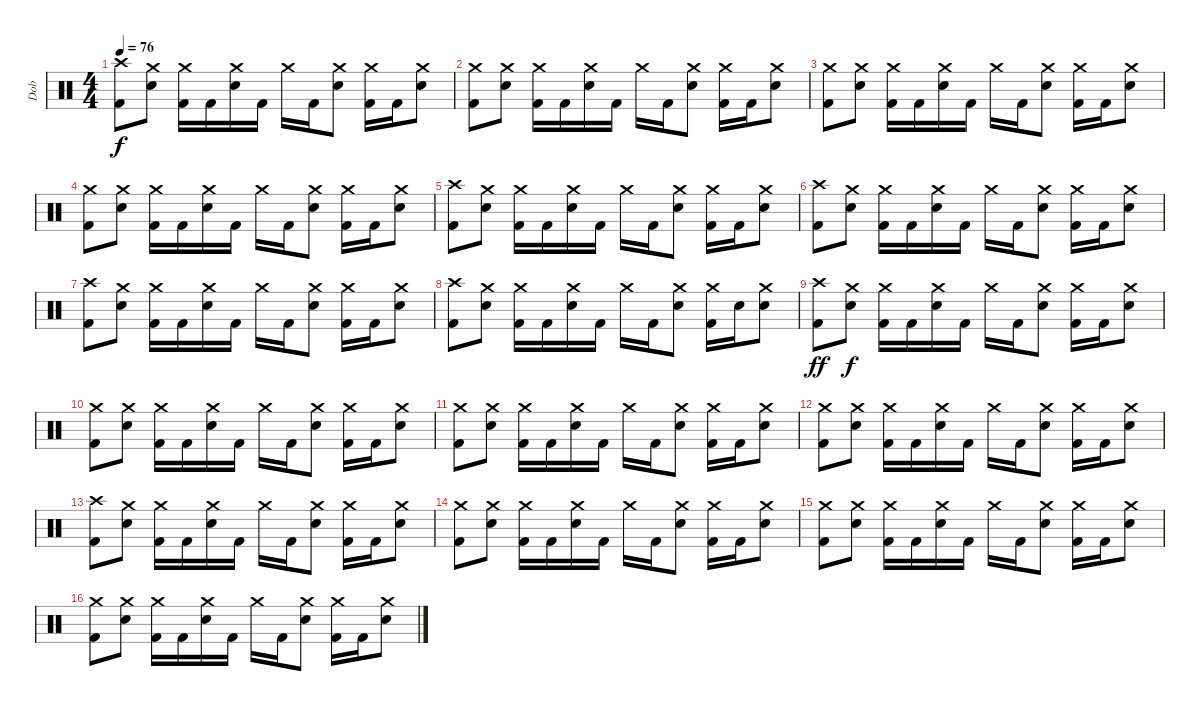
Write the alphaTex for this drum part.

\track ("Dob" "Dob") {instrument percussion}
\staff {score}
\articulation defaults
\ts (4 4)
\tempo 76
\clef neutral
\ks c
("Kick (hit) 2" "Crash high (hit)").8{dy f} ("Electric Snare (hit)" "Crash medium (hit)").8 ("Kick (hit) 2" "Crash medium (hit)").16 "Kick (hit) 2".16 ("Electric Snare (hit)" "Crash medium (hit)").16 "Kick (hit) 2".16 "Crash medium (hit)".16 "Kick (hit) 2".16 ("Electric Snare (hit)" "Crash medium (hit)").8 ("Kick (hit) 2" "Crash medium (hit)").16 "Kick (hit) 2".16 ("Electric Snare (hit)" "Crash medium (hit)").8 |
("Kick (hit) 2" "Crash medium (hit)").8 ("Electric Snare (hit)" "Crash medium (hit)").8 ("Kick (hit) 2" "Crash medium (hit)").16 "Kick (hit) 2".16 ("Electric Snare (hit)" "Crash medium (hit)").16 "Kick (hit) 2".16 "Crash medium (hit)".16 "Kick (hit) 2".16 ("Electric Snare (hit)" "Crash medium (hit)").8 ("Kick (hit) 2" "Crash medium (hit)").16 "Kick (hit) 2".16 ("Electric Snare (hit)" "Crash medium (hit)").8 |
("Kick (hit) 2" "Crash medium (hit)").8 ("Electric Snare (hit)" "Crash medium (hit)").8 ("Kick (hit) 2" "Crash medium (hit)").16 "Kick (hit) 2".16 ("Electric Snare (hit)" "Crash medium (hit)").16 "Kick (hit) 2".16 "Crash medium (hit)".16 "Kick (hit) 2".16 ("Electric Snare (hit)" "Crash medium (hit)").8 ("Kick (hit) 2" "Crash medium (hit)").16 "Kick (hit) 2".16 ("Electric Snare (hit)" "Crash medium (hit)").8 |
("Kick (hit) 2" "Crash medium (hit)").8 ("Electric Snare (hit)" "Crash medium (hit)").8 ("Kick (hit) 2" "Crash medium (hit)").16 "Kick (hit) 2".16 ("Electric Snare (hit)" "Crash medium (hit)").16 "Kick (hit) 2".16 "Crash medium (hit)".16 "Kick (hit) 2".16 ("Electric Snare (hit)" "Crash medium (hit)").8 ("Kick (hit) 2" "Crash medium (hit)").16 "Kick (hit) 2".16 ("Electric Snare (hit)" "Crash medium (hit)").8 |
("Kick (hit) 2" "Crash high (hit)").8 ("Electric Snare (hit)" "Crash medium (hit)").8 ("Kick (hit) 2" "Crash medium (hit)").16 "Kick (hit) 2".16 ("Electric Snare (hit)" "Crash medium (hit)").16 "Kick (hit) 2".16 "Crash medium (hit)".16 "Kick (hit) 2".16 ("Electric Snare (hit)" "Crash medium (hit)").8 ("Kick (hit) 2" "Crash medium (hit)").16 "Kick (hit) 2".16 ("Electric Snare (hit)" "Crash medium (hit)").8 |
("Kick (hit) 2" "Crash high (hit)").8 ("Electric Snare (hit)" "Crash medium (hit)").8 ("Kick (hit) 2" "Crash medium (hit)").16 "Kick (hit) 2".16 ("Electric Snare (hit)" "Crash medium (hit)").16 "Kick (hit) 2".16 "Crash medium (hit)".16 "Kick (hit) 2".16 ("Electric Snare (hit)" "Crash medium (hit)").8 ("Kick (hit) 2" "Crash medium (hit)").16 "Kick (hit) 2".16 ("Electric Snare (hit)" "Crash medium (hit)").8 |
("Kick (hit) 2" "Crash high (hit)").8 ("Electric Snare (hit)" "Crash medium (hit)").8 ("Kick (hit) 2" "Crash medium (hit)").16 "Kick (hit) 2".16 ("Electric Snare (hit)" "Crash medium (hit)").16 "Kick (hit) 2".16 "Crash medium (hit)".16 "Kick (hit) 2".16 ("Electric Snare (hit)" "Crash medium (hit)").8 ("Kick (hit) 2" "Crash medium (hit)").16 "Kick (hit) 2".16 ("Electric Snare (hit)" "Crash medium (hit)").8 |
("Kick (hit) 2" "Crash high (hit)").8 ("Electric Snare (hit)" "Crash medium (hit)").8 ("Kick (hit) 2" "Crash medium (hit)").16 "Kick (hit) 2".16 ("Electric Snare (hit)" "Crash medium (hit)").16 "Kick (hit) 2".16 "Crash medium (hit)".16 "Kick (hit) 2".16 ("Electric Snare (hit)" "Crash medium (hit)").8 ("Kick (hit) 2" "Crash medium (hit)").16 "Electric Snare (hit)".16 ("Electric Snare (hit)"{tr (40 64)} "Crash medium (hit)").8 |
("Kick (hit) 2" "Crash high (hit)").8{dy ff} ("Electric Snare (hit)" "Crash medium (hit)").8{dy f} ("Kick (hit) 2" "Crash medium (hit)").16 "Kick (hit) 2".16 ("Electric Snare (hit)" "Crash medium (hit)").16 "Kick (hit) 2".16 "Crash medium (hit)".16 "Kick (hit) 2".16 ("Electric Snare (hit)" "Crash medium (hit)").8 ("Kick (hit) 2" "Crash medium (hit)").16 "Kick (hit) 2".16 ("Electric Snare (hit)" "Crash medium (hit)").8 |
("Kick (hit) 2" "Crash medium (hit)").8 ("Electric Snare (hit)" "Crash medium (hit)").8 ("Kick (hit) 2" "Crash medium (hit)").16 "Kick (hit) 2".16 ("Electric Snare (hit)" "Crash medium (hit)").16 "Kick (hit) 2".16 "Crash medium (hit)".16 "Kick (hit) 2".16 ("Electric Snare (hit)" "Crash medium (hit)").8 ("Kick (hit) 2" "Crash medium (hit)").16 "Kick (hit) 2".16 ("Electric Snare (hit)" "Crash medium (hit)").8 |
("Kick (hit) 2" "Crash medium (hit)").8 ("Electric Snare (hit)" "Crash medium (hit)").8 ("Kick (hit) 2" "Crash medium (hit)").16 "Kick (hit) 2".16 ("Electric Snare (hit)" "Crash medium (hit)").16 "Kick (hit) 2".16 "Crash medium (hit)".16 "Kick (hit) 2".16 ("Electric Snare (hit)" "Crash medium (hit)").8 ("Kick (hit) 2" "Crash medium (hit)").16 "Kick (hit) 2".16 ("Electric Snare (hit)" "Crash medium (hit)").8 |
("Kick (hit) 2" "Crash medium (hit)").8 ("Electric Snare (hit)" "Crash medium (hit)").8 ("Kick (hit) 2" "Crash medium (hit)").16 "Kick (hit) 2".16 ("Electric Snare (hit)" "Crash medium (hit)").16 "Kick (hit) 2".16 "Crash medium (hit)".16 "Kick (hit) 2".16 ("Electric Snare (hit)" "Crash medium (hit)").8 ("Kick (hit) 2" "Crash medium (hit)").16 "Kick (hit) 2".16 ("Electric Snare (hit)" "Crash medium (hit)").8 |
("Kick (hit) 2" "Crash high (hit)").8 ("Electric Snare (hit)" "Crash medium (hit)").8 ("Kick (hit) 2" "Crash medium (hit)").16 "Kick (hit) 2".16 ("Electric Snare (hit)" "Crash medium (hit)").16 "Kick (hit) 2".16 "Crash medium (hit)".16 "Kick (hit) 2".16 ("Electric Snare (hit)" "Crash medium (hit)").8 ("Kick (hit) 2" "Crash medium (hit)").16 "Kick (hit) 2".16 ("Electric Snare (hit)" "Crash medium (hit)").8 |
("Kick (hit) 2" "Crash medium (hit)").8 ("Electric Snare (hit)" "Crash medium (hit)").8 ("Kick (hit) 2" "Crash medium (hit)").16 "Kick (hit) 2".16 ("Electric Snare (hit)" "Crash medium (hit)").16 "Kick (hit) 2".16 "Crash medium (hit)".16 "Kick (hit) 2".16 ("Electric Snare (hit)" "Crash medium (hit)").8 ("Kick (hit) 2" "Crash medium (hit)").16 "Kick (hit) 2".16 ("Electric Snare (hit)" "Crash medium (hit)").8 |
("Kick (hit) 2" "Crash medium (hit)").8 ("Electric Snare (hit)" "Crash medium (hit)").8 ("Kick (hit) 2" "Crash medium (hit)").16 "Kick (hit) 2".16 ("Electric Snare (hit)" "Crash medium (hit)").16 "Kick (hit) 2".16 "Crash medium (hit)".16 "Kick (hit) 2".16 ("Electric Snare (hit)" "Crash medium (hit)").8 ("Kick (hit) 2" "Crash medium (hit)").16 "Kick (hit) 2".16 ("Electric Snare (hit)" "Crash medium (hit)").8 |
("Kick (hit) 2" "Crash medium (hit)").8 ("Electric Snare (hit)" "Crash medium (hit)").8 ("Kick (hit) 2" "Crash medium (hit)").16 "Kick (hit) 2".16 ("Electric Snare (hit)" "Crash medium (hit)").16 "Kick (hit) 2".16 "Crash medium (hit)".16 "Kick (hit) 2".16 ("Electric Snare (hit)" "Crash medium (hit)").8 ("Kick (hit) 2" "Crash medium (hit)").16 "Kick (hit) 2".16 ("Electric Snare (hit)" "Crash medium (hit)").8
